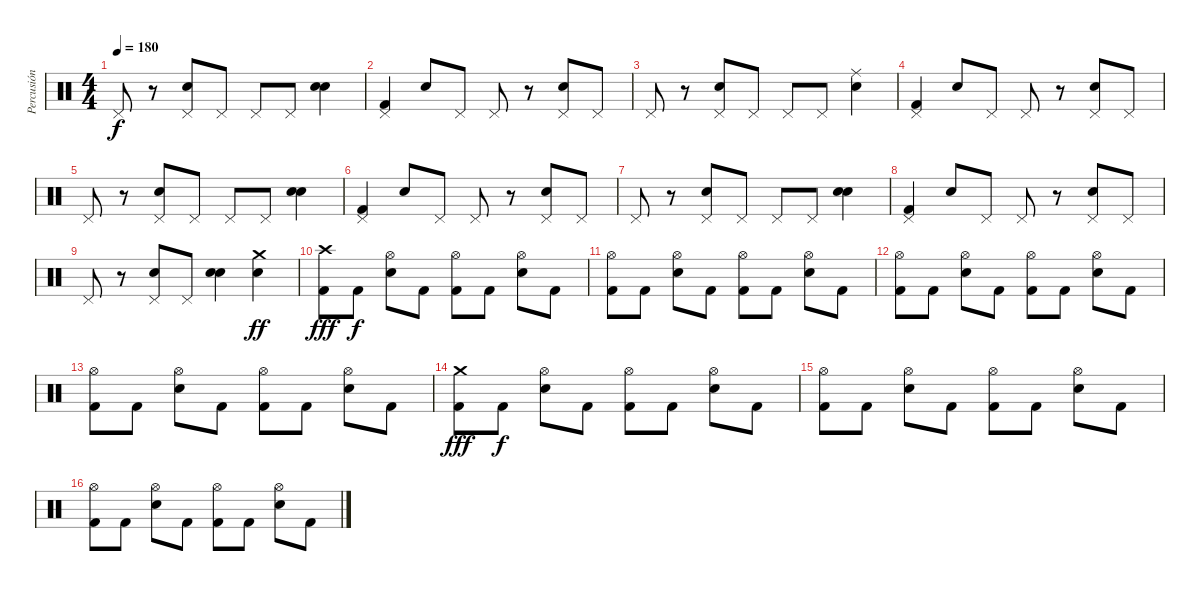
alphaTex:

\track ("Percusión" "Percusión") {instrument percussion}
\staff {score}
\articulation defaults
\ts (4 4)
\tempo 180
\clef neutral
\ks c "Pedal Hi-Hat (hit)".8{dy f}
r.8 ("Pedal Hi-Hat (hit)" "Electric Snare (hit)").8 "Pedal Hi-Hat (hit)".8 "Pedal Hi-Hat (hit)".8 "Pedal Hi-Hat (hit)".8 ("Electric Snare (hit)" "Electric Snare (hit)").4{bd 240} |
("Pedal Hi-Hat (hit)" "Kick (hit) 2").4 "Electric Snare (hit)".8 "Pedal Hi-Hat (hit)".8 "Pedal Hi-Hat (hit)".8 r.8 ("Pedal Hi-Hat (hit)" "Electric Snare (hit)").8 "Pedal Hi-Hat (hit)".8 |
"Pedal Hi-Hat (hit)".8 r.8 ("Pedal Hi-Hat (hit)" "Electric Snare (hit)").8 "Pedal Hi-Hat (hit)".8 "Pedal Hi-Hat (hit)".8 "Pedal Hi-Hat (hit)".8 ("Ride (middle)" "Electric Snare (hit)").4 |
("Pedal Hi-Hat (hit)" "Kick (hit) 2").4 "Electric Snare (hit)".8 "Pedal Hi-Hat (hit)".8 "Pedal Hi-Hat (hit)".8 r.8 ("Pedal Hi-Hat (hit)" "Electric Snare (hit)").8 "Pedal Hi-Hat (hit)".8 |
"Pedal Hi-Hat (hit)".8 r.8 ("Pedal Hi-Hat (hit)" "Electric Snare (hit)").8 "Pedal Hi-Hat (hit)".8 "Pedal Hi-Hat (hit)".8 "Pedal Hi-Hat (hit)".8 ("Electric Snare (hit)" "Electric Snare (hit)").4{bd 240} |
("Pedal Hi-Hat (hit)" "Kick (hit) 2").4 "Electric Snare (hit)".8 "Pedal Hi-Hat (hit)".8 "Pedal Hi-Hat (hit)".8 r.8 ("Pedal Hi-Hat (hit)" "Electric Snare (hit)").8 "Pedal Hi-Hat (hit)".8 |
"Pedal Hi-Hat (hit)".8 r.8 ("Pedal Hi-Hat (hit)" "Electric Snare (hit)").8 "Pedal Hi-Hat (hit)".8 "Pedal Hi-Hat (hit)".8 "Pedal Hi-Hat (hit)".8 ("Electric Snare (hit)" "Electric Snare (hit)").4{bd 240} |
("Pedal Hi-Hat (hit)" "Kick (hit) 2").4 "Electric Snare (hit)".8 "Pedal Hi-Hat (hit)".8 "Pedal Hi-Hat (hit)".8 r.8 ("Pedal Hi-Hat (hit)" "Electric Snare (hit)").8 "Pedal Hi-Hat (hit)".8 |
"Pedal Hi-Hat (hit)".8 r.8 ("Pedal Hi-Hat (hit)" "Electric Snare (hit)").8 "Pedal Hi-Hat (hit)".8 ("Electric Snare (hit)" "Electric Snare (hit)").4{bd 240} ("Crash medium (hit)" "Electric Snare (hit)").4{dy ff} |
("Crash high (hit)" "Kick (hit) 2").8{dy fff} "Kick (hit) 2".8{dy f} ("Hi-Hat (open)" "Electric Snare (hit)").8 "Kick (hit) 2".8 ("Hi-Hat (open)" "Kick (hit) 2").8 "Kick (hit) 2".8 ("Hi-Hat (open)" "Electric Snare (hit)").8 "Kick (hit) 2".8 |
("Hi-Hat (open)" "Kick (hit) 2").8 "Kick (hit) 2".8 ("Hi-Hat (open)" "Electric Snare (hit)").8 "Kick (hit) 2".8 ("Hi-Hat (open)" "Kick (hit) 2").8 "Kick (hit) 2".8 ("Hi-Hat (open)" "Electric Snare (hit)").8 "Kick (hit) 2".8 |
("Hi-Hat (open)" "Kick (hit) 2").8 "Kick (hit) 2".8 ("Hi-Hat (open)" "Electric Snare (hit)").8 "Kick (hit) 2".8 ("Hi-Hat (open)" "Kick (hit) 2").8 "Kick (hit) 2".8 ("Hi-Hat (open)" "Electric Snare (hit)").8 "Kick (hit) 2".8 |
("Hi-Hat (open)" "Kick (hit) 2").8 "Kick (hit) 2".8 ("Hi-Hat (open)" "Electric Snare (hit)").8 "Kick (hit) 2".8 ("Hi-Hat (open)" "Kick (hit) 2").8 "Kick (hit) 2".8 ("Hi-Hat (open)" "Electric Snare (hit)").8 "Kick (hit) 2".8 |
("Crash medium (hit)" "Kick (hit) 2").8{dy fff} "Kick (hit) 2".8{dy f} ("Hi-Hat (open)" "Electric Snare (hit)").8 "Kick (hit) 2".8 ("Hi-Hat (open)" "Kick (hit) 2").8 "Kick (hit) 2".8 ("Hi-Hat (open)" "Electric Snare (hit)").8 "Kick (hit) 2".8 |
("Hi-Hat (open)" "Kick (hit) 2").8 "Kick (hit) 2".8 ("Hi-Hat (open)" "Electric Snare (hit)").8 "Kick (hit) 2".8 ("Hi-Hat (open)" "Kick (hit) 2").8 "Kick (hit) 2".8 ("Hi-Hat (open)" "Electric Snare (hit)").8 "Kick (hit) 2".8 |
("Hi-Hat (open)" "Kick (hit) 2").8 "Kick (hit) 2".8 ("Hi-Hat (open)" "Electric Snare (hit)").8 "Kick (hit) 2".8 ("Hi-Hat (open)" "Kick (hit) 2").8 "Kick (hit) 2".8 ("Hi-Hat (open)" "Electric Snare (hit)").8 "Kick (hit) 2".8
